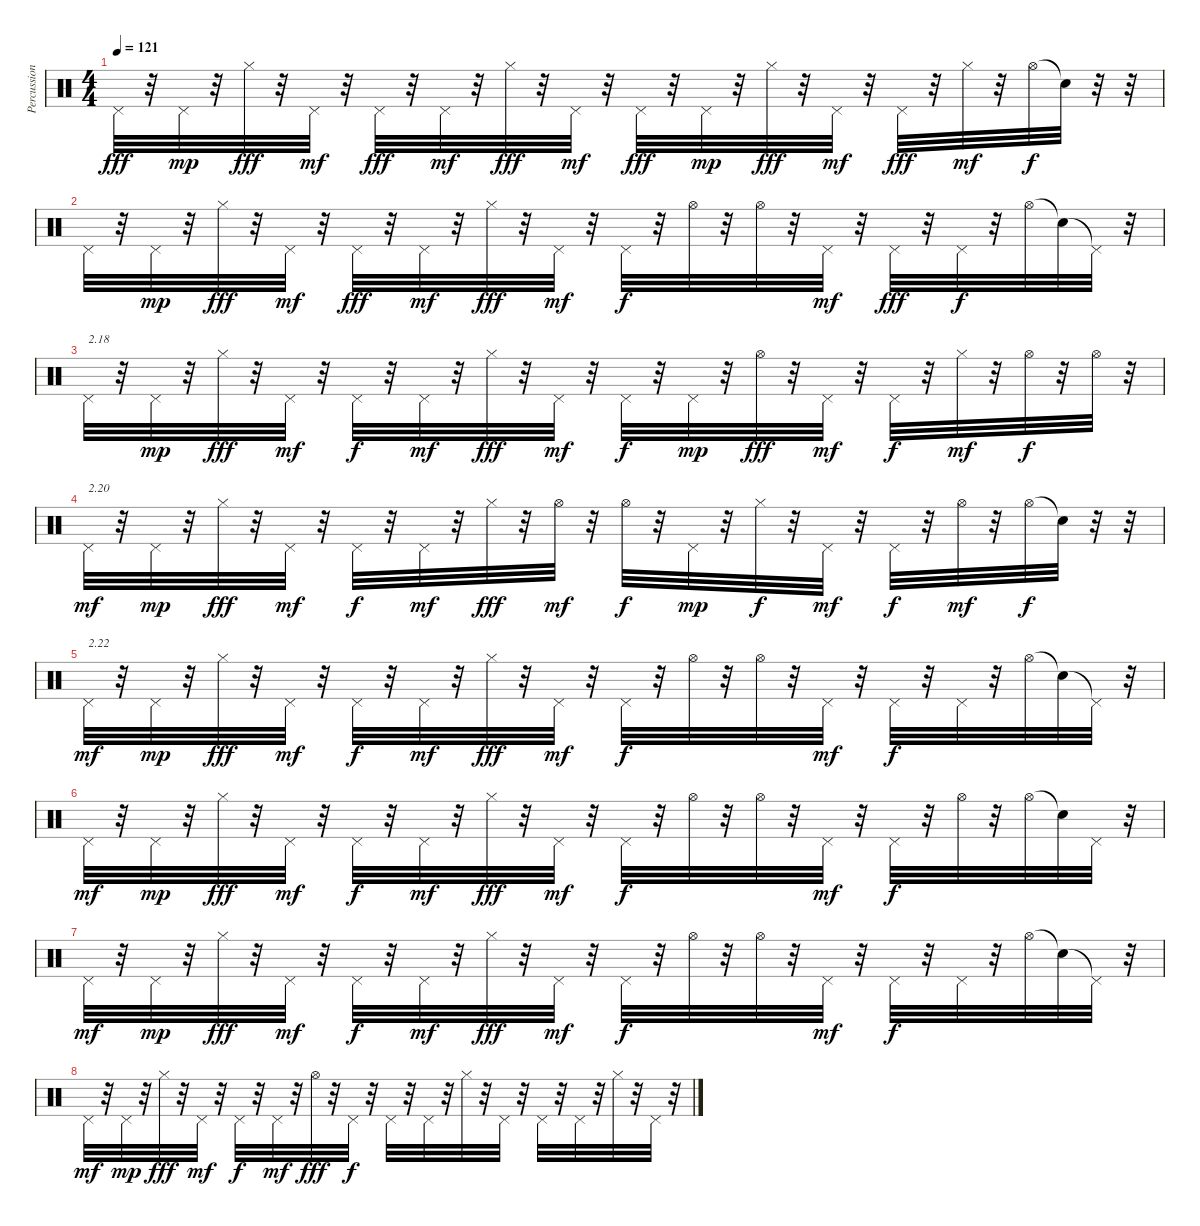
\track ("Percussions" "Percussion") {instrument percussion}
\staff {score}
\articulation defaults
\ts (4 4)
\tempo 121
\clef neutral
\ks c "Pedal Hi-Hat (hit)".32{dy fff}
r.32 "Pedal Hi-Hat (hit)".32{dy mp} r.32 "Hi-Hat (closed)".32{dy fff} r.32 "Pedal Hi-Hat (hit)".32{dy mf} r.32 "Pedal Hi-Hat (hit)".32{dy fff} r.32 "Pedal Hi-Hat (hit)".32{dy mf} r.32 "Hi-Hat (closed)".32{dy fff} r.32 "Pedal Hi-Hat (hit)".32{dy mf} r.32 "Pedal Hi-Hat (hit)".32{dy fff} r.32 "Pedal Hi-Hat (hit)".32{dy mp} r.32 "Hi-Hat (closed)".32{dy fff} r.32 "Pedal Hi-Hat (hit)".32{dy mf} r.32 "Pedal Hi-Hat (hit)".32{dy fff} r.32 "Hi-Hat (closed)".32{dy mf} r.32 "Hi-Hat (open)".32{dy f} "Snare (hit)"{t}.32 r.32 r.32 |
"Pedal Hi-Hat (hit)".32 r.32 "Pedal Hi-Hat (hit)".32{dy mp} r.32 "Hi-Hat (closed)".32{dy fff} r.32 "Pedal Hi-Hat (hit)".32{dy mf} r.32 "Pedal Hi-Hat (hit)".32{dy fff} r.32 "Pedal Hi-Hat (hit)".32{dy mf} r.32 "Hi-Hat (closed)".32{dy fff} r.32 "Pedal Hi-Hat (hit)".32{dy mf} r.32 "Pedal Hi-Hat (hit)".32{dy f} r.32 "Hi-Hat (open)".32 r.32 "Hi-Hat (open)".32 r.32 "Pedal Hi-Hat (hit)".32{dy mf} r.32 "Pedal Hi-Hat (hit)".32{dy fff} r.32 "Pedal Hi-Hat (hit)".32{dy f} r.32 "Hi-Hat (open)".32 "Snare (hit)"{t}.32 "Pedal Hi-Hat (hit)"{t}.32 r.32 |
"Pedal Hi-Hat (hit)".32{txt "2.18"} r.32 "Pedal Hi-Hat (hit)".32{dy mp} r.32 "Hi-Hat (closed)".32{dy fff} r.32 "Pedal Hi-Hat (hit)".32{dy mf} r.32 "Pedal Hi-Hat (hit)".32{dy f} r.32 "Pedal Hi-Hat (hit)".32{dy mf} r.32 "Hi-Hat (closed)".32{dy fff} r.32 "Pedal Hi-Hat (hit)".32{dy mf} r.32 "Pedal Hi-Hat (hit)".32{dy f} r.32 "Pedal Hi-Hat (hit)".32{dy mp} r.32 "Hi-Hat (open)".32{dy fff} r.32 "Pedal Hi-Hat (hit)".32{dy mf} r.32 "Pedal Hi-Hat (hit)".32{dy f} r.32 "Hi-Hat (closed)".32{dy mf} r.32 "Hi-Hat (open)".32{dy f} r.32 "Hi-Hat (open)".32 r.32 |
"Pedal Hi-Hat (hit)".32{txt "2.20" dy mf} r.32 "Pedal Hi-Hat (hit)".32{dy mp} r.32 "Hi-Hat (closed)".32{dy fff} r.32 "Pedal Hi-Hat (hit)".32{dy mf} r.32 "Pedal Hi-Hat (hit)".32{dy f} r.32 "Pedal Hi-Hat (hit)".32{dy mf} r.32 "Hi-Hat (closed)".32{dy fff} r.32 "Hi-Hat (open)".32{dy mf} r.32 "Hi-Hat (open)".32{dy f} r.32 "Pedal Hi-Hat (hit)".32{dy mp} r.32 "Hi-Hat (closed)".32{dy f} r.32 "Pedal Hi-Hat (hit)".32{dy mf} r.32 "Pedal Hi-Hat (hit)".32{dy f} r.32 "Hi-Hat (open)".32{dy mf} r.32 "Hi-Hat (open)".32{dy f} "Snare (hit)"{t}.32 r.32 r.32 |
"Pedal Hi-Hat (hit)".32{txt "2.22" dy mf} r.32 "Pedal Hi-Hat (hit)".32{dy mp} r.32 "Hi-Hat (closed)".32{dy fff} r.32 "Pedal Hi-Hat (hit)".32{dy mf} r.32 "Pedal Hi-Hat (hit)".32{dy f} r.32 "Pedal Hi-Hat (hit)".32{dy mf} r.32 "Hi-Hat (closed)".32{dy fff} r.32 "Pedal Hi-Hat (hit)".32{dy mf} r.32 "Pedal Hi-Hat (hit)".32{dy f} r.32 "Hi-Hat (open)".32 r.32 "Hi-Hat (open)".32 r.32 "Pedal Hi-Hat (hit)".32{dy mf} r.32 "Pedal Hi-Hat (hit)".32{dy f} r.32 "Pedal Hi-Hat (hit)".32 r.32 "Hi-Hat (open)".32 "Snare (hit)"{t}.32 "Pedal Hi-Hat (hit)"{t}.32 r.32 |
"Pedal Hi-Hat (hit)".32{dy mf} r.32 "Pedal Hi-Hat (hit)".32{dy mp} r.32 "Hi-Hat (closed)".32{dy fff} r.32 "Pedal Hi-Hat (hit)".32{dy mf} r.32 "Pedal Hi-Hat (hit)".32{dy f} r.32 "Pedal Hi-Hat (hit)".32{dy mf} r.32 "Hi-Hat (closed)".32{dy fff} r.32 "Pedal Hi-Hat (hit)".32{dy mf} r.32 "Pedal Hi-Hat (hit)".32{dy f} r.32 "Hi-Hat (open)".32 r.32 "Hi-Hat (open)".32 r.32 "Pedal Hi-Hat (hit)".32{dy mf} r.32 "Pedal Hi-Hat (hit)".32{dy f} r.32 "Hi-Hat (open)".32 r.32 "Hi-Hat (open)".32 "Snare (hit)"{t}.32 "Pedal Hi-Hat (hit)".32 r.32 |
"Pedal Hi-Hat (hit)".32{dy mf} r.32 "Pedal Hi-Hat (hit)".32{dy mp} r.32 "Hi-Hat (closed)".32{dy fff} r.32 "Pedal Hi-Hat (hit)".32{dy mf} r.32 "Pedal Hi-Hat (hit)".32{dy f} r.32 "Pedal Hi-Hat (hit)".32{dy mf} r.32 "Hi-Hat (closed)".32{dy fff} r.32 "Pedal Hi-Hat (hit)".32{dy mf} r.32 "Pedal Hi-Hat (hit)".32{dy f} r.32 "Hi-Hat (open)".32 r.32 "Hi-Hat (open)".32 r.32 "Pedal Hi-Hat (hit)".32{dy mf} r.32 "Pedal Hi-Hat (hit)".32{dy f} r.32 "Pedal Hi-Hat (hit)".32 r.32 "Hi-Hat (open)".32 "Snare (hit)"{t}.32 "Pedal Hi-Hat (hit)"{t}.32 r.32 |
"Pedal Hi-Hat (hit)".32{dy mf} r.32 "Pedal Hi-Hat (hit)".32{dy mp} r.32 "Hi-Hat (closed)".32{dy fff} r.32 "Pedal Hi-Hat (hit)".32{dy mf} r.32 "Pedal Hi-Hat (hit)".32{dy f} r.32 "Pedal Hi-Hat (hit)".32{dy mf} r.32 "Hi-Hat (open)".32{dy fff} r.32 "Pedal Hi-Hat (hit)".32{dy f} r.32 "Pedal Hi-Hat (hit)".32 r.32 "Pedal Hi-Hat (hit)".32 r.32 "Hi-Hat (closed)".32 r.32 "Pedal Hi-Hat (hit)".32 r.32 "Pedal Hi-Hat (hit)".32 r.32 "Pedal Hi-Hat (hit)".32 r.32 "Hi-Hat (closed)".32 r.32 "Pedal Hi-Hat (hit)".32 r.32
